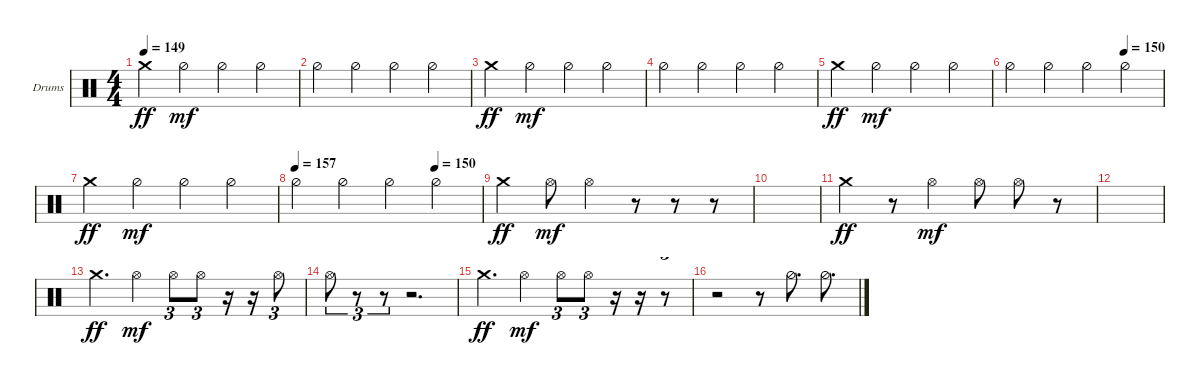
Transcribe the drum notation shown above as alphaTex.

\defaultSystemsLayout 4
\bracketExtendMode groupsimilarinstruments
\firstSystemTrackNameOrientation horizontal
\otherSystemsTrackNameOrientation horizontal
\track ("Drumkit" "Drums") {instrument percussion}
\staff {score}
\articulation defaults
\ts (4 4)
\tempo 149
\clef neutral
\scale
0.333333
\ks c "Crash medium (hit)".4{dy ff} "Hi-Hat (half)".4{dy mf} "Hi-Hat (half)".4 "Hi-Hat (half)".4
|
\scale
0.333333 "Hi-Hat (half)".4 "Hi-Hat (half)".4 "Hi-Hat (half)".4 "Hi-Hat (half)".4 |
\scale
0.333333 "Crash medium (hit)".4{dy ff} "Hi-Hat (half)".4{dy mf} "Hi-Hat (half)".4 "Hi-Hat (half)".4 |
\scale
0.333333 "Hi-Hat (half)".4 "Hi-Hat (half)".4 "Hi-Hat (half)".4 "Hi-Hat (half)".4 |
\scale
0.333333 "Crash medium (hit)".4{dy ff} "Hi-Hat (half)".4{dy mf} "Hi-Hat (half)".4 "Hi-Hat (half)".4 |
\tempo (150 0.75)
\scale
0.333333 "Hi-Hat (half)".4 "Hi-Hat (half)".4 "Hi-Hat (half)".4 "Hi-Hat (half)".4 |
\scale
0.333333 "Crash medium (hit)".4{dy ff} "Hi-Hat (half)".4{dy mf} "Hi-Hat (half)".4 "Hi-Hat (half)".4 |
\tempo 157
\tempo (150 0.75)
\scale
0.333333 "Hi-Hat (half)".4 "Hi-Hat (half)".4 "Hi-Hat (half)".4 "Hi-Hat (half)".4 |
\scale
0.333333 "Crash medium (hit)".4{dy ff} "Hi-Hat (open)".8{dy mf} "Hi-Hat (open)".4 r.8 r.8 r.8 |
\scale
0.333333 |
\scale
0.333333 "Crash medium (hit)".4{dy ff} r.8 "Hi-Hat (open)".4{dy mf} "Hi-Hat (open)".8 "Hi-Hat (open)".8 r.8 |
\scale
0.333333 |
\scale
0.333333 "Crash medium (hit)".4{d dy ff} "Hi-Hat (open)".4{dy mf} "Hi-Hat (open)".8{tu (3 2)} "Hi-Hat (open)".8{tu (3 2)} r.16 r.16 "Hi-Hat (open)".8{tu (3 2)} |
\scale
0.333333 "Hi-Hat (open)".8{tu (3 2)} r.8{tu (3 2)} r.8{tu (3 2)} r.2{d} |
\scale
0.333333 "Crash medium (hit)".4{d dy ff} "Hi-Hat (open)".4{dy mf} "Hi-Hat (open)".8{tu (3 2)} "Hi-Hat (open)".8{tu (3 2)} r.16 r.16 r.8{tu (3 2)} |
\scale
0.333333 r.2 r.8 "Hi-Hat (half)".8{d} "Hi-Hat (half)".8{d}
